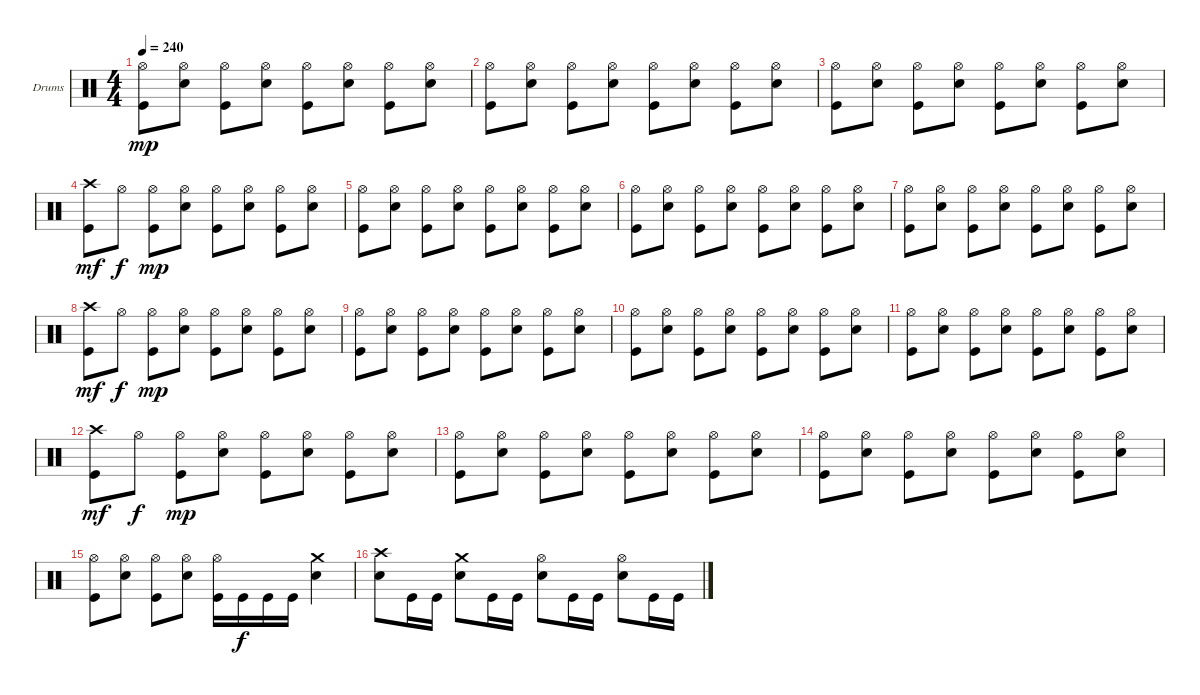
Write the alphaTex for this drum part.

\bracketExtendMode groupsimilarinstruments
\firstSystemTrackNameOrientation horizontal
\otherSystemsTrackNameOrientation horizontal
\track ("Drumkit" "Drums") {instrument percussion}
\staff {score}
\articulation defaults
\ts (4 4)
\tempo 240
\clef neutral
\ks c
("Hi-Hat (open)" "Kick (hit)").8{dy mp} ("Hi-Hat (open)" "Snare (hit) 2").8 ("Hi-Hat (open)" "Kick (hit)").8 ("Hi-Hat (open)" "Snare (hit) 2").8 ("Hi-Hat (open)" "Kick (hit)").8 ("Hi-Hat (open)" "Snare (hit) 2").8 ("Hi-Hat (open)" "Kick (hit)").8 ("Hi-Hat (open)" "Snare (hit) 2").8 |
("Hi-Hat (open)" "Kick (hit)").8 ("Hi-Hat (open)" "Snare (hit) 2").8 ("Hi-Hat (open)" "Kick (hit)").8 ("Hi-Hat (open)" "Snare (hit) 2").8 ("Hi-Hat (open)" "Kick (hit)").8 ("Hi-Hat (open)" "Snare (hit) 2").8 ("Hi-Hat (open)" "Kick (hit)").8 ("Hi-Hat (open)" "Snare (hit) 2").8 |
("Hi-Hat (open)" "Kick (hit)").8 ("Hi-Hat (open)" "Snare (hit) 2").8 ("Hi-Hat (open)" "Kick (hit)").8 ("Hi-Hat (open)" "Snare (hit) 2").8 ("Hi-Hat (open)" "Kick (hit)").8 ("Hi-Hat (open)" "Snare (hit) 2").8 ("Hi-Hat (open)" "Kick (hit)").8 ("Hi-Hat (open)" "Snare (hit) 2").8 |
("Crash high (hit)" "Kick (hit)").8{dy mf} "Hi-Hat (open)".8{dy f} ("Hi-Hat (open)" "Kick (hit)").8{dy mp} ("Hi-Hat (open)" "Snare (hit) 2").8 ("Hi-Hat (open)" "Kick (hit)").8 ("Hi-Hat (open)" "Snare (hit) 2").8 ("Hi-Hat (open)" "Kick (hit)").8 ("Hi-Hat (open)" "Snare (hit) 2").8 |
("Hi-Hat (open)" "Kick (hit)").8 ("Hi-Hat (open)" "Snare (hit) 2").8 ("Hi-Hat (open)" "Kick (hit)").8 ("Hi-Hat (open)" "Snare (hit) 2").8 ("Hi-Hat (open)" "Kick (hit)").8 ("Hi-Hat (open)" "Snare (hit) 2").8 ("Hi-Hat (open)" "Kick (hit)").8 ("Hi-Hat (open)" "Snare (hit) 2").8 |
("Hi-Hat (open)" "Kick (hit)").8 ("Hi-Hat (open)" "Snare (hit) 2").8 ("Hi-Hat (open)" "Kick (hit)").8 ("Hi-Hat (open)" "Snare (hit) 2").8 ("Hi-Hat (open)" "Kick (hit)").8 ("Hi-Hat (open)" "Snare (hit) 2").8 ("Hi-Hat (open)" "Kick (hit)").8 ("Hi-Hat (open)" "Snare (hit) 2").8 |
("Hi-Hat (open)" "Kick (hit)").8 ("Hi-Hat (open)" "Snare (hit) 2").8 ("Hi-Hat (open)" "Kick (hit)").8 ("Hi-Hat (open)" "Snare (hit) 2").8 ("Hi-Hat (open)" "Kick (hit)").8 ("Hi-Hat (open)" "Snare (hit) 2").8 ("Hi-Hat (open)" "Kick (hit)").8 ("Hi-Hat (open)" "Snare (hit) 2").8 |
("Crash high (hit)" "Kick (hit)").8{dy mf} "Hi-Hat (open)".8{dy f} ("Hi-Hat (open)" "Kick (hit)").8{dy mp} ("Hi-Hat (open)" "Snare (hit) 2").8 ("Hi-Hat (open)" "Kick (hit)").8 ("Hi-Hat (open)" "Snare (hit) 2").8 ("Hi-Hat (open)" "Kick (hit)").8 ("Hi-Hat (open)" "Snare (hit) 2").8 |
("Hi-Hat (open)" "Kick (hit)").8 ("Hi-Hat (open)" "Snare (hit) 2").8 ("Hi-Hat (open)" "Kick (hit)").8 ("Hi-Hat (open)" "Snare (hit) 2").8 ("Hi-Hat (open)" "Kick (hit)").8 ("Hi-Hat (open)" "Snare (hit) 2").8 ("Hi-Hat (open)" "Kick (hit)").8 ("Hi-Hat (open)" "Snare (hit) 2").8 |
("Hi-Hat (open)" "Kick (hit)").8 ("Hi-Hat (open)" "Snare (hit) 2").8 ("Hi-Hat (open)" "Kick (hit)").8 ("Hi-Hat (open)" "Snare (hit) 2").8 ("Hi-Hat (open)" "Kick (hit)").8 ("Hi-Hat (open)" "Snare (hit) 2").8 ("Hi-Hat (open)" "Kick (hit)").8 ("Hi-Hat (open)" "Snare (hit) 2").8 |
("Hi-Hat (open)" "Kick (hit)").8 ("Hi-Hat (open)" "Snare (hit) 2").8 ("Hi-Hat (open)" "Kick (hit)").8 ("Hi-Hat (open)" "Snare (hit) 2").8 ("Hi-Hat (open)" "Kick (hit)").8 ("Hi-Hat (open)" "Snare (hit) 2").8 ("Hi-Hat (open)" "Kick (hit)").8 ("Hi-Hat (open)" "Snare (hit) 2").8 |
("Crash high (hit)" "Kick (hit)").8{dy mf} "Hi-Hat (open)".8{dy f} ("Hi-Hat (open)" "Kick (hit)").8{dy mp} ("Hi-Hat (open)" "Snare (hit) 2").8 ("Hi-Hat (open)" "Kick (hit)").8 ("Hi-Hat (open)" "Snare (hit) 2").8 ("Hi-Hat (open)" "Kick (hit)").8 ("Hi-Hat (open)" "Snare (hit) 2").8 |
("Hi-Hat (open)" "Kick (hit)").8 ("Hi-Hat (open)" "Snare (hit) 2").8 ("Hi-Hat (open)" "Kick (hit)").8 ("Hi-Hat (open)" "Snare (hit) 2").8 ("Hi-Hat (open)" "Kick (hit)").8 ("Hi-Hat (open)" "Snare (hit) 2").8 ("Hi-Hat (open)" "Kick (hit)").8 ("Hi-Hat (open)" "Snare (hit) 2").8 |
("Hi-Hat (open)" "Kick (hit)").8 ("Hi-Hat (open)" "Snare (hit) 2").8 ("Hi-Hat (open)" "Kick (hit)").8 ("Hi-Hat (open)" "Snare (hit) 2").8 ("Hi-Hat (open)" "Kick (hit)").8 ("Hi-Hat (open)" "Snare (hit) 2").8 ("Hi-Hat (open)" "Kick (hit)").8 ("Hi-Hat (open)" "Snare (hit) 2").8 |
("Hi-Hat (open)" "Kick (hit)").8 ("Hi-Hat (open)" "Snare (hit) 2").8 ("Hi-Hat (open)" "Kick (hit)").8 ("Hi-Hat (open)" "Snare (hit) 2").8 ("Hi-Hat (open)" "Kick (hit)").16 "Kick (hit)".16{dy f} "Kick (hit)".16 "Kick (hit)".16 ("Crash medium (hit)" "Snare (hit) 2").4 |
("Crash high (hit)" "Snare (hit) 2").8 "Kick (hit)".16 "Kick (hit)".16 ("Crash medium (hit)" "Snare (hit) 2").8 "Kick (hit)".16 "Kick (hit)".16 ("Hi-Hat (open)" "Snare (hit) 2").8 "Kick (hit)".16 "Kick (hit)".16 ("Hi-Hat (open)" "Snare (hit) 2").8 "Kick (hit)".16 "Kick (hit)".16
